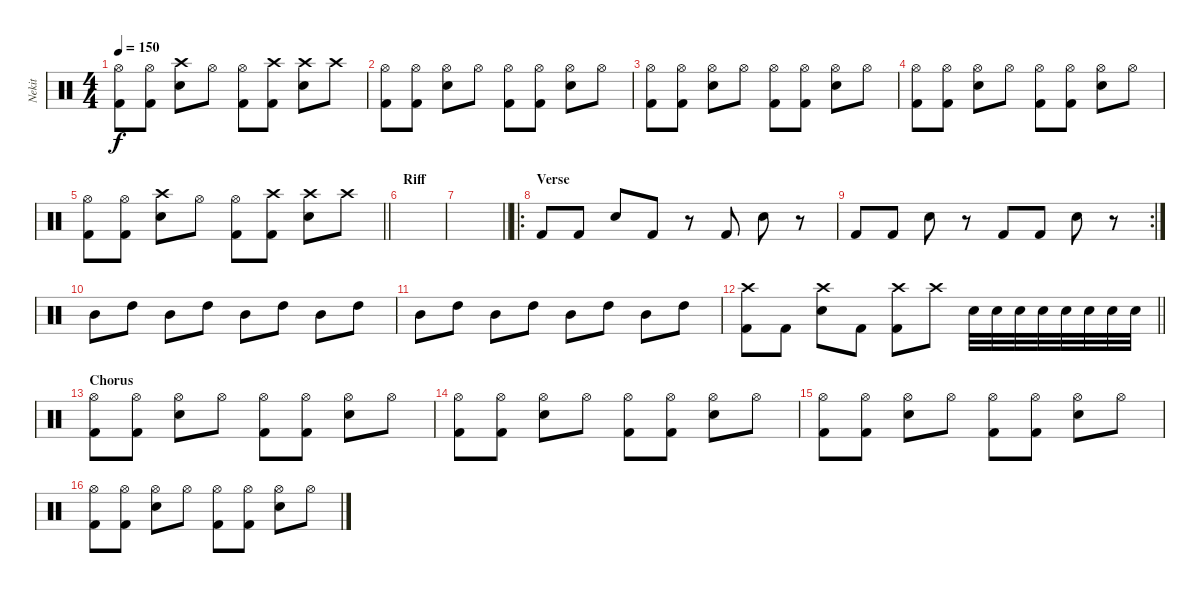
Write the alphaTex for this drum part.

\track ("Nekit" "Nekit") {instrument percussion}
\staff {score}
\articulation defaults
\ts (4 4)
\tempo 150
\clef neutral
\ks c
("Hi-Hat (open)" "Kick (hit) 2").8{dy f} ("Hi-Hat (open)" "Kick (hit) 2").8 ("Crash high (hit)" "Electric Snare (hit)").8 "Hi-Hat (open)".8 ("Hi-Hat (open)" "Kick (hit) 2").8 ("Crash high (hit)" "Kick (hit) 2").8 ("Crash high (hit)" "Electric Snare (hit)").8 "Crash high (hit)".8 |
("Hi-Hat (open)" "Kick (hit) 2").8 ("Hi-Hat (open)" "Kick (hit) 2").8 ("Hi-Hat (open)" "Electric Snare (hit)").8 "Hi-Hat (open)".8 ("Hi-Hat (open)" "Kick (hit) 2").8 ("Hi-Hat (open)" "Kick (hit) 2").8 ("Hi-Hat (open)" "Electric Snare (hit)").8 "Hi-Hat (open)".8 |
("Hi-Hat (open)" "Kick (hit) 2").8 ("Hi-Hat (open)" "Kick (hit) 2").8 ("Hi-Hat (open)" "Electric Snare (hit)").8 "Hi-Hat (open)".8 ("Hi-Hat (open)" "Kick (hit) 2").8 ("Hi-Hat (open)" "Kick (hit) 2").8 ("Hi-Hat (open)" "Electric Snare (hit)").8 "Hi-Hat (open)".8 |
("Hi-Hat (open)" "Kick (hit) 2").8 ("Hi-Hat (open)" "Kick (hit) 2").8 ("Hi-Hat (open)" "Electric Snare (hit)").8 "Hi-Hat (open)".8 ("Hi-Hat (open)" "Kick (hit) 2").8 ("Hi-Hat (open)" "Kick (hit) 2").8 ("Hi-Hat (open)" "Electric Snare (hit)").8 "Hi-Hat (open)".8 |
\barLineRight lightlight
("Hi-Hat (open)" "Kick (hit) 2").8 ("Hi-Hat (open)" "Kick (hit) 2").8 ("Crash high (hit)" "Electric Snare (hit)").8 "Hi-Hat (open)".8 ("Hi-Hat (open)" "Kick (hit) 2").8 ("Crash high (hit)" "Kick (hit) 2").8 ("Crash high (hit)" "Electric Snare (hit)").8 "Crash high (hit)".8 |
\section ("" "Riff")
|
\barLineRight lightlight
|
\ro
\section ("" "Verse")
"Kick (hit) 2".8 "Kick (hit) 2".8 "Electric Snare (hit)".8 "Kick (hit) 2".8 r.8 "Kick (hit) 2".8 "Electric Snare (hit)".8 r.8 |
\rc 2 "Kick (hit) 2".8 "Kick (hit) 2".8 "Electric Snare (hit)".8
r.8 "Kick (hit) 2".8 "Kick (hit) 2".8 "Electric Snare (hit)".8 r.8 |
"Mid Tom (hit)".8 "High Tom (hit)".8 "Mid Tom (hit)".8 "High Tom (hit)".8 "Mid Tom (hit)".8 "High Tom (hit)".8 "Mid Tom (hit)".8 "High Tom (hit)".8 |
"Mid Tom (hit)".8 "High Tom (hit)".8 "Mid Tom (hit)".8 "High Tom (hit)".8 "Mid Tom (hit)".8 "High Tom (hit)".8 "Mid Tom (hit)".8 "High Tom (hit)".8 |
\barLineRight lightlight
("Crash high (hit)" "Kick (hit) 2").8 "Kick (hit) 2".8 ("Crash high (hit)" "Electric Snare (hit)").8 "Kick (hit) 2".8 ("Crash high (hit)" "Kick (hit) 2").8 "Crash high (hit)".8 "Electric Snare (hit)".32 "Electric Snare (hit)".32 "Electric Snare (hit)".32 "Electric Snare (hit)".32 "Electric Snare (hit)".32 "Electric Snare (hit)".32 "Electric Snare (hit)".32 "Electric Snare (hit)".32 |
\section ("" "Chorus")
("Hi-Hat (open)" "Kick (hit) 2").8 ("Hi-Hat (open)" "Kick (hit) 2").8 ("Hi-Hat (open)" "Electric Snare (hit)").8 "Hi-Hat (open)".8 ("Hi-Hat (open)" "Kick (hit) 2").8 ("Hi-Hat (open)" "Kick (hit) 2").8 ("Hi-Hat (open)" "Electric Snare (hit)").8 "Hi-Hat (open)".8 |
("Hi-Hat (open)" "Kick (hit) 2").8 ("Hi-Hat (open)" "Kick (hit) 2").8 ("Hi-Hat (open)" "Electric Snare (hit)").8 "Hi-Hat (open)".8 ("Hi-Hat (open)" "Kick (hit) 2").8 ("Hi-Hat (open)" "Kick (hit) 2").8 ("Hi-Hat (open)" "Electric Snare (hit)").8 "Hi-Hat (open)".8 |
("Hi-Hat (open)" "Kick (hit) 2").8 ("Hi-Hat (open)" "Kick (hit) 2").8 ("Hi-Hat (open)" "Electric Snare (hit)").8 "Hi-Hat (open)".8 ("Hi-Hat (open)" "Kick (hit) 2").8 ("Hi-Hat (open)" "Kick (hit) 2").8 ("Hi-Hat (open)" "Electric Snare (hit)").8 "Hi-Hat (open)".8 |
("Hi-Hat (open)" "Kick (hit) 2").8 ("Hi-Hat (open)" "Kick (hit) 2").8 ("Hi-Hat (open)" "Electric Snare (hit)").8 "Hi-Hat (open)".8 ("Hi-Hat (open)" "Kick (hit) 2").8 ("Hi-Hat (open)" "Kick (hit) 2").8 ("Hi-Hat (open)" "Electric Snare (hit)").8 "Hi-Hat (open)".8
